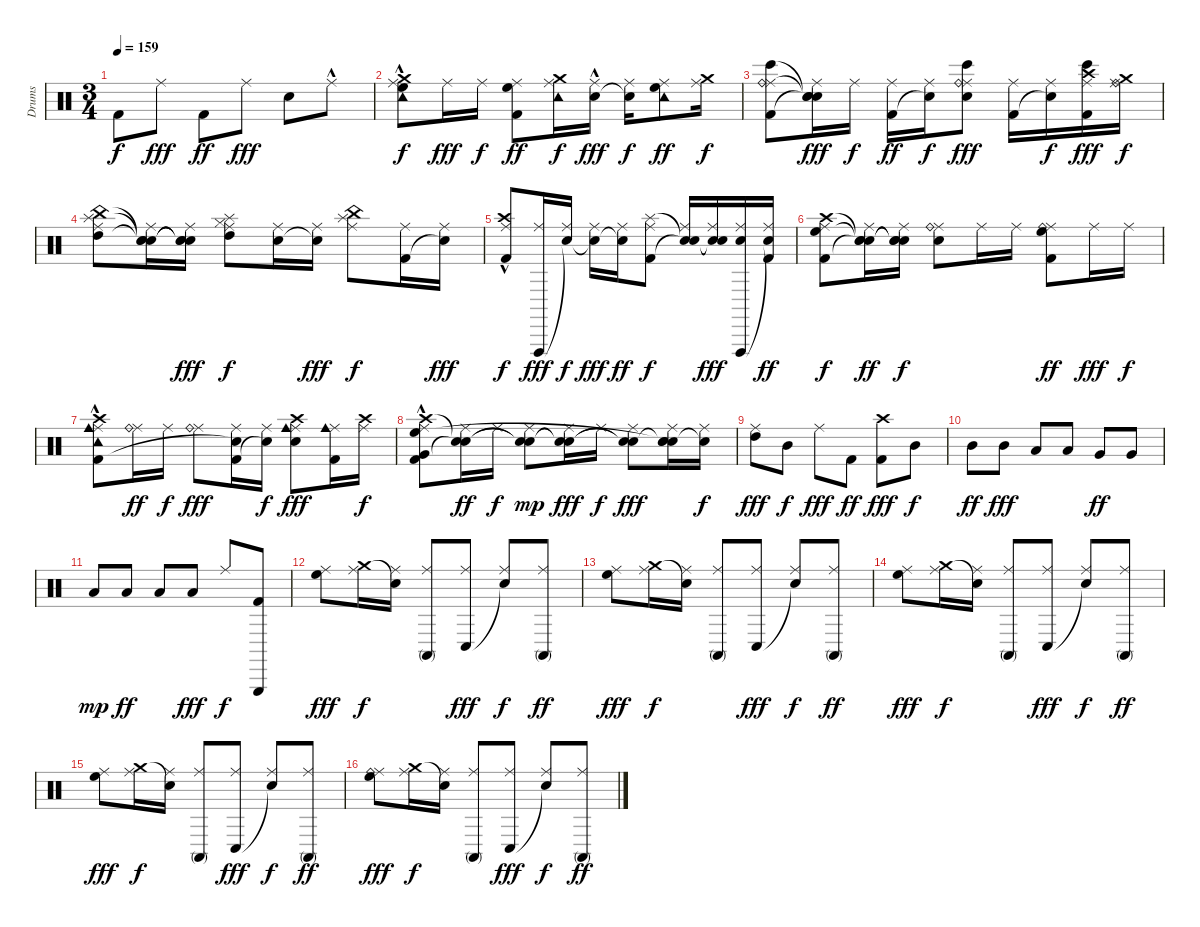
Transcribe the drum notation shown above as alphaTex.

\track ("Drums" "Drums") {instrument percussion}
\staff {score}
\articulation defaults
\ts (3 4)
\tempo 159
\clef neutral
\ks c "Kick (hit) 2".8{dy f} "Ride (middle)".8{dy fff} "Kick (hit) 2".8{dy ff} "Ride (middle)".8{dy fff} "Snare (hit) 2".8 "Ride (middle)"{hac}.8
|
("Ride (middle)"{hac} "High Floor Tom (hit)" "Tambourine (hit)" "Crash medium (hit)").8{dy f} "Ride (middle)".16{dy fff} "Ride (middle)".16{dy f} ("Ride (middle)" "Kick (hit) 2" "High Floor Tom (hit)").8{dy ff} ("Ride (middle)" "Crash medium (hit)" "Tambourine (hit)").16{dy f} ("Ride (middle)"{hac} "Snare (hit) 2").16{dy fff} ("Ride (middle)" "Snare (hit)"{t}).16{dy f} ("Ride (middle)" "Tambourine (hit)" "High Floor Tom (hit)").8{dy ff} ("Ride (middle)" "Crash medium (hit)").16{dy f} |
("Ride (middle)" "Kick (hit) 2" "Bongo High (hit)" "Ride (bell)").8 ("Ride (middle)" "Snare (hit)"{t} "Snare (hit)"{t} "Snare (hit)"{t}).16{dy fff} "Ride (middle)".16{dy f} ("Ride (middle)" "Kick (hit) 2").16{dy ff} ("Ride (middle)" "Snare (hit)"{t}).16{dy f} ("Ride (middle)" "Snare (hit) 2" "Bongo High (hit)" "Ride (bell)").8{dy fff} ("Ride (middle)" "Kick (hit) 2").16 ("Ride (middle)" "Snare (hit)"{t}).16{dy f} ("Ride (middle)" "Kick (hit) 2" "Bongo High (hit)" "Crash high (hit)").16{dy fff} ("Ride (middle)" "Ride (bell)" "Crash medium (hit)").16{dy f} |
("Ride (middle)" "High Tom (hit)" "China (hit)" "Splash (hit)").8 ("Ride (middle)" "Snare (hit)"{t} "Snare (hit)"{t} "Snare (hit)"{t}).16 ("Ride (middle)" "Snare (hit)"{t} "Snare (hit)"{t} "Snare (hit)"{t}).16{dy fff} ("Ride (middle)" "High Tom (hit)" "Hi-Hat (closed)" "Splash (hit)").8{dy f} ("Ride (middle)" "Snare (hit) 2").16 ("Ride (middle)" "Snare (hit)"{t}).16{dy fff} ("Ride (middle)" "China (hit)" "Splash (hit)").8{dy f} ("Ride (middle)" "Kick (hit) 2").16 ("Ride (middle)" "Snare (hit)"{t}).16{dy fff} |
("Ride (middle)"{hac} "Crash high (hit)" "Kick (hit) 2").8{dy f} ("Ride (middle)" "Vibraslap (hit)").16{dy fff} ("Ride (middle)" "Snare (hit)"{t}).16{dy f} ("Ride (middle)" "Snare (hit)"{t}).16{dy fff} ("Ride (middle)" "Snare (hit)"{t}).16{dy ff} ("Ride (middle)" "Splash (hit)" "Kick (hit) 2").8{dy f} ("Ride (middle)" "Snare (hit)"{t} "Snare (hit)"{t}).16 ("Ride (middle)" "Snare (hit)"{t} "Snare (hit)"{t}).16{dy fff} ("Ride (middle)" "Snare (hit) 2" "Vibraslap (hit)").16 ("Ride (middle)" "Kick (hit) 2" "Snare (hit)"{t}).16{dy ff} |
("Ride (middle)" "Crash high (hit)" "Kick (hit) 2" "High Floor Tom (hit)").8{dy f} ("Ride (middle)" "Snare (hit)"{t} "Snare (hit)"{t} "Snare (hit)"{t}).16{dy ff} ("Ride (middle)" "Snare (hit)"{t} "Snare (hit)"{t} "Snare (hit)"{t}).16{dy f} ("Ride (middle)" "Ride (bell)" "Snare (hit) 2").8 "Ride (middle)".16 "Ride (middle)".16 ("Ride (middle)" "Kick (hit) 2" "Ride (bell)" "High Floor Tom (hit)").8{dy ff} "Ride (middle)".16{dy fff} "Ride (middle)".16{dy f} |
("Ride (middle)" "Crash high (hit)" "Kick (hit) 2"{hac} "Tambourine (hit)" "Cowbell medium (hit)").8 ("Ride (middle)" "Ride (bell)").16{dy ff} "Ride (middle)".16{dy f} ("Ride (middle)" "Ride (bell)").8{dy fff} ("Ride (middle)" "Kick (hit) 2" "Snare (hit)"{t}).16 ("Ride (middle)" "Snare (hit)"{t}).16{dy f} ("Ride (middle)" "Snare (hit) 2" "Cowbell medium (hit)" "Crash high (hit)").8{dy fff} ("Ride (middle)" "Kick (hit) 2" "Cowbell medium (hit)").16 ("Ride (middle)" "Crash high (hit)").16{dy f} |
("Ride (middle)"{hac} "Kick (hit) 2" "Crash high (hit)" "High Floor Tom (hit)" "Very Low Tom (hit)").8 ("Ride (middle)" "Snare (hit)"{t} "Snare (hit)"{t}).16{dy ff} "Ride (middle)".16{dy f} ("Ride (middle)" "Snare (hit)"{t} "Snare (hit)"{t}).8{dy mp} ("Ride (middle)" "Snare (hit)"{t} "Snare (hit)"{t}).16{dy fff} "Ride (middle)".16{dy f} ("Ride (middle)" "Snare (hit)"{t} "Snare (hit)"{t}).8{dy fff} ("Ride (middle)" "Snare (hit) 2" "Snare (hit)"{t} "Snare (hit)"{t}).16 ("Ride (middle)" "Snare (hit)"{t}).16{dy f} |
("Ride (middle)" "High Tom (hit)").8{dy fff} "Mid Tom (hit)".8{dy f} "Ride (middle)".8{dy fff} "Kick (hit) 2".8{dy ff} ("Kick (hit) 2" "Crash high (hit)").8{dy fff} "Mid Tom (hit)".8{dy f} |
"Mid Tom (hit)".8{dy ff} "Mid Tom (hit)".8{dy fff} "Low Tom (hit)".8 "Low Tom (hit)".8 "Very Low Tom (hit)".8{dy ff} "Very Low Tom (hit)".8 |
"Low Floor Tom (hit)".8{dy mp} "Low Floor Tom (hit)".8{dy ff} "Low Floor Tom (hit)".8 "Low Floor Tom (hit)".8{dy fff} "Ride (middle)".8{dy f} ("Kick (hit) 2" "Triangle (hit)").8 |
("Ride (middle)" "High Floor Tom (hit)").8{dy fff} ("Ride (middle)" "Crash medium (hit)").16{dy f} ("Ride (middle)" "Snare (hit)"{t}).16 ("Ride (middle)" "Conga high (mute)").8 ("Ride (middle)" "Conga low (hit)").8{dy fff} ("Ride (middle)" "Snare (hit)"{t}).8{dy f} ("Ride (middle)" "Conga high (mute)").8{dy ff} |
("Ride (middle)" "High Floor Tom (hit)").8{dy fff} ("Ride (middle)" "Crash medium (hit)").16{dy f} ("Ride (middle)" "Snare (hit)"{t}).16 ("Ride (middle)" "Conga high (mute)").8 ("Ride (middle)" "Conga low (hit)").8{dy fff} ("Ride (middle)" "Snare (hit)"{t}).8{dy f} ("Ride (middle)" "Conga high (mute)").8{dy ff} |
("Ride (middle)" "High Floor Tom (hit)").8{dy fff} ("Ride (middle)" "Crash medium (hit)").16{dy f} ("Ride (middle)" "Snare (hit)"{t}).16 ("Ride (middle)" "Conga high (mute)").8 ("Ride (middle)" "Conga low (hit)").8{dy fff} ("Ride (middle)" "Snare (hit)"{t}).8{dy f} ("Ride (middle)" "Conga high (mute)").8{dy ff} |
("Ride (middle)" "High Floor Tom (hit)").8{dy fff} ("Ride (middle)" "Crash medium (hit)").16{dy f} ("Ride (middle)" "Snare (hit)"{t}).16 ("Ride (middle)" "Conga high (mute)").8 ("Ride (middle)" "Conga low (hit)").8{dy fff} ("Ride (middle)" "Snare (hit)"{t}).8{dy f} ("Ride (middle)" "Conga high (mute)").8{dy ff} |
("Ride (middle)" "High Floor Tom (hit)" "Ride (bell)").8{dy fff} ("Ride (middle)" "Crash medium (hit)").16{dy f} ("Ride (middle)" "Snare (hit)"{t}).16 ("Ride (middle)" "Conga high (mute)").8 ("Ride (middle)" "Conga low (hit)").8{dy fff} ("Ride (middle)" "Snare (hit)"{t}).8{dy f} ("Ride (middle)" "Conga high (mute)").8{dy ff}
